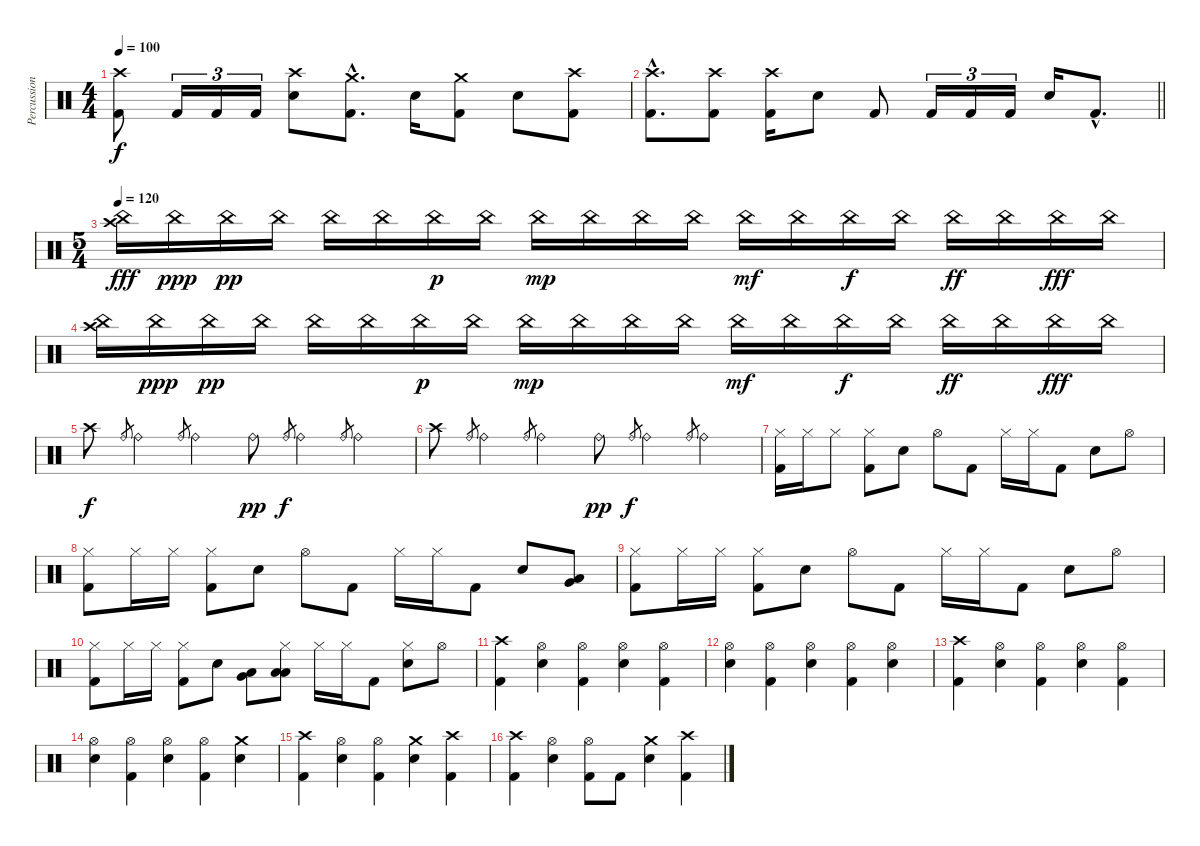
\track ("Percussion" "Percussion") {instrument percussion}
\staff {score}
\articulation defaults
\ts (4 4)
\tempo 100
\clef neutral
\ks c
("Crash high (hit)" "Kick (hit) 2").8{dy f} "Kick (hit) 2".16{tu (3 2)} "Kick (hit) 2".16{tu (3 2)} "Kick (hit) 2".16{tu (3 2)} ("Crash high (hit)" "Electric Snare (hit)").8 ("Crash medium (hit)"{hac} "Kick (hit) 2"{hac}).8{d} "Electric Snare (hit)".16 ("Crash medium (hit)" "Kick (hit) 2").8 "Electric Snare (hit)".8 ("Crash high (hit)" "Kick (hit) 2").8 |
\barLineRight lightlight
("Crash high (hit)"{hac} "Kick (hit) 2"{hac}).8{d} ("Crash high (hit)" "Kick (hit) 2").8 ("Crash high (hit)" "Kick (hit) 2").16 "Electric Snare (hit)".8 "Kick (hit) 2".8 "Kick (hit) 2".16{tu (3 2)} "Kick (hit) 2".16{tu (3 2)} "Kick (hit) 2".16{tu (3 2)} "Electric Snare (hit)".16 "Kick (hit) 2"{hac}.8{d} |
\ts (5 4)
\tempo 120
("Crash high (hit)" "China (hit)").16{dy fff} "China (hit)".16{dy ppp} "China (hit)".16{dy pp} "China (hit)".16 "China (hit)".16 "China (hit)".16 "China (hit)".16{dy p} "China (hit)".16 "China (hit)".16{dy mp} "China (hit)".16 "China (hit)".16 "China (hit)".16 "China (hit)".16{dy mf} "China (hit)".16 "China (hit)".16{dy f} "China (hit)".16 "China (hit)".16{dy ff} "China (hit)".16 "China (hit)".16{dy fff} "China (hit)".16 |
("Crash high (hit)" "China (hit)").16 "China (hit)".16{dy ppp} "China (hit)".16{dy pp} "China (hit)".16 "China (hit)".16 "China (hit)".16 "China (hit)".16{dy p} "China (hit)".16 "China (hit)".16{dy mp} "China (hit)".16 "China (hit)".16 "China (hit)".16 "China (hit)".16{dy mf} "China (hit)".16 "China (hit)".16{dy f} "China (hit)".16 "China (hit)".16{dy ff} "China (hit)".16 "China (hit)".16{dy fff} "China (hit)".16 |
"Crash high (hit)".8{dy f} "Ride (bell)".8{gr} "Ride (bell)".4 "Ride (bell)".8{gr} "Ride (bell)".4 "Ride (bell)".8{dy pp} "Ride (bell)".8{gr dy f} "Ride (bell)".4 "Ride (bell)".8{gr} "Ride (bell)".4 |
"Crash high (hit)".8 "Ride (bell)".8{gr} "Ride (bell)".4 "Ride (bell)".8{gr} "Ride (bell)".4 "Ride (bell)".8{dy pp} "Ride (bell)".8{gr dy f} "Ride (bell)".4 "Ride (bell)".8{gr} "Ride (bell)".4 |
("Hi-Hat (closed)" "Kick (hit) 2").16 "Hi-Hat (closed)".16 "Hi-Hat (closed)".8 ("Hi-Hat (closed)" "Kick (hit) 2").8 "Electric Snare (hit)".8 "Hi-Hat (open)".8 "Kick (hit) 2".8 "Hi-Hat (closed)".16 "Hi-Hat (closed)".16 "Kick (hit) 2".8 "Electric Snare (hit)".8 "Hi-Hat (open)".8 |
("Hi-Hat (closed)" "Kick (hit) 2").8 "Hi-Hat (closed)".16 "Hi-Hat (closed)".16 ("Hi-Hat (closed)" "Kick (hit) 2").8 "Electric Snare (hit)".8 "Hi-Hat (open)".8 "Kick (hit) 2".8 "Hi-Hat (closed)".16 "Hi-Hat (closed)".16 "Kick (hit) 2".8 "Electric Snare (hit)".8 ("Low Tom (hit)" "Very Low Tom (hit)").8 |
("Hi-Hat (closed)" "Kick (hit) 2").8 "Hi-Hat (closed)".16 "Hi-Hat (closed)".16 ("Hi-Hat (closed)" "Kick (hit) 2").8 "Electric Snare (hit)".8 "Hi-Hat (open)".8 "Kick (hit) 2".8 "Hi-Hat (closed)".16 "Hi-Hat (closed)".16 "Kick (hit) 2".8 "Electric Snare (hit)".8 "Hi-Hat (open)".8 |
("Hi-Hat (closed)" "Kick (hit) 2").8 "Hi-Hat (closed)".16 "Hi-Hat (closed)".16 ("Hi-Hat (closed)" "Kick (hit) 2").8 "Electric Snare (hit)".8 ("Low Tom (hit)" "Very Low Tom (hit)").8 ("Hi-Hat (closed)" "Low Tom (hit)" "Low Floor Tom (hit)").8 "Hi-Hat (closed)".16 "Hi-Hat (closed)".16 "Kick (hit) 2".8 ("Hi-Hat (closed)" "Electric Snare (hit)").8 "Hi-Hat (open)".8 |
("Crash high (hit)" "Kick (hit) 2").4 ("Hi-Hat (open)" "Electric Snare (hit)").4 ("Hi-Hat (open)" "Kick (hit) 2").4 ("Hi-Hat (open)" "Electric Snare (hit)").4 ("Hi-Hat (open)" "Kick (hit) 2").4 |
("Hi-Hat (open)" "Electric Snare (hit)").4 ("Hi-Hat (open)" "Kick (hit) 2").4 ("Hi-Hat (open)" "Electric Snare (hit)").4 ("Hi-Hat (open)" "Kick (hit) 2").4 ("Hi-Hat (open)" "Electric Snare (hit)").4 |
("Crash high (hit)" "Kick (hit) 2").4 ("Hi-Hat (open)" "Electric Snare (hit)").4 ("Hi-Hat (open)" "Kick (hit) 2").4 ("Hi-Hat (open)" "Electric Snare (hit)").4 ("Hi-Hat (open)" "Kick (hit) 2").4 |
("Hi-Hat (open)" "Electric Snare (hit)").4 ("Hi-Hat (open)" "Kick (hit) 2").4 ("Hi-Hat (open)" "Electric Snare (hit)").4 ("Hi-Hat (open)" "Kick (hit) 2").4 ("Crash medium (hit)" "Electric Snare (hit)").4 |
("Crash high (hit)" "Kick (hit) 2").4 ("Hi-Hat (open)" "Electric Snare (hit)").4 ("Hi-Hat (open)" "Kick (hit) 2").4 ("Crash medium (hit)" "Electric Snare (hit)").4 ("Crash high (hit)" "Kick (hit) 2").4 |
("Crash high (hit)" "Kick (hit) 2").4 ("Hi-Hat (open)" "Electric Snare (hit)").4 ("Hi-Hat (open)" "Kick (hit) 2").8 "Kick (hit) 2".8 ("Crash medium (hit)" "Electric Snare (hit)").4 ("Crash high (hit)" "Kick (hit) 2").4
